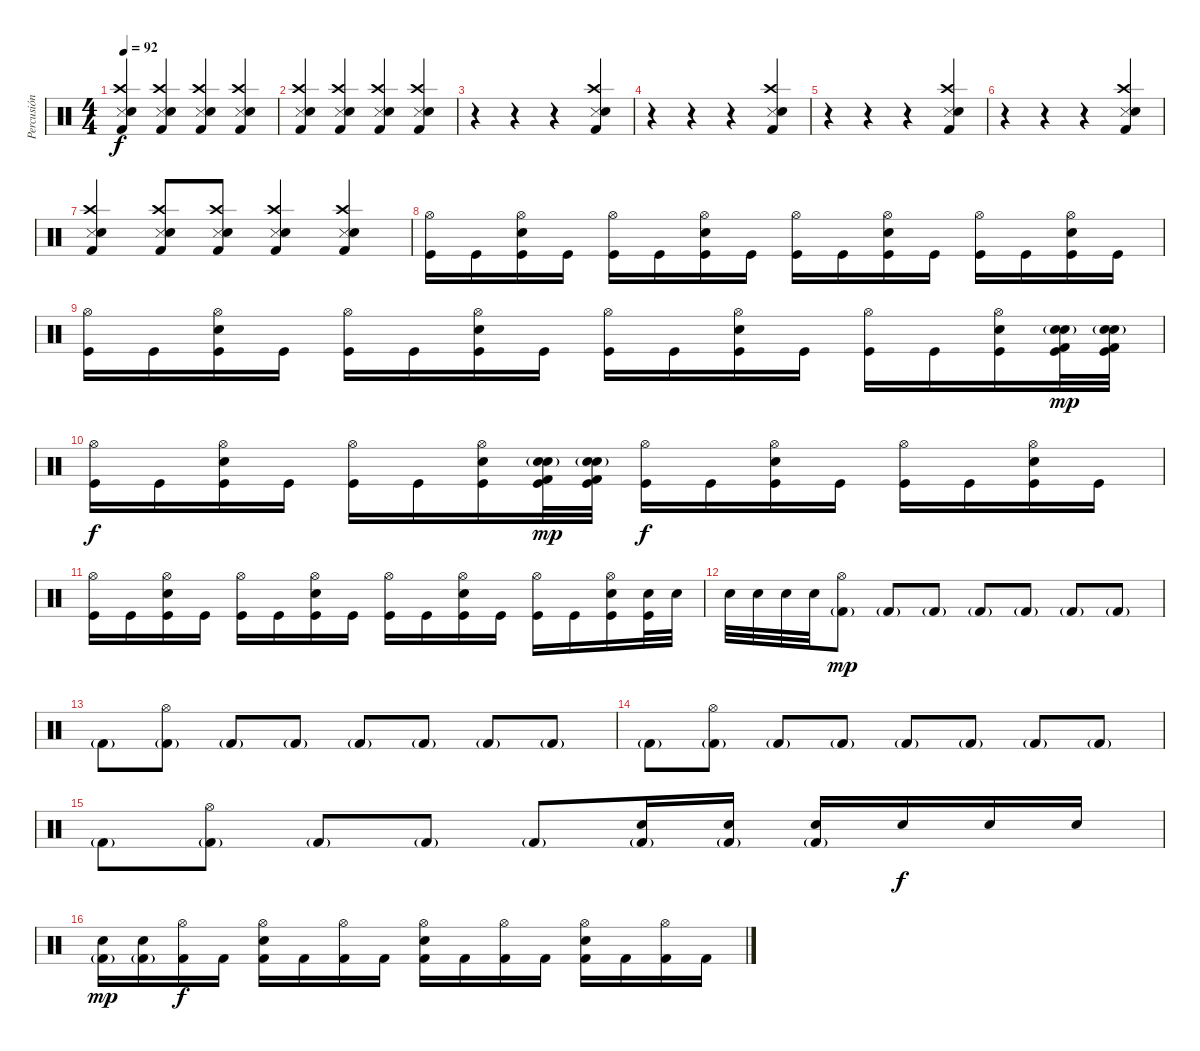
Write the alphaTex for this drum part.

\track ("Percusión" "Percusión") {instrument percussion}
\staff {score}
\articulation defaults
\ts (4 4)
\tempo 92
\clef neutral
\ks c
("Snare (side stick) 3" "Snare (hit) 2" "Crash high (hit)" "Kick (hit) 2").4{dy f} ("Snare (side stick) 3" "Snare (hit) 2" "Crash high (hit)" "Kick (hit) 2").4 ("Snare (side stick) 3" "Snare (hit) 2" "Crash high (hit)" "Kick (hit) 2").4 ("Snare (side stick) 3" "Snare (hit) 2" "Crash high (hit)" "Kick (hit) 2").4 |
("Snare (side stick) 3" "Snare (hit) 2" "Crash high (hit)" "Kick (hit) 2").4 ("Snare (side stick) 3" "Snare (hit) 2" "Crash high (hit)" "Kick (hit) 2").4 ("Snare (side stick) 3" "Snare (hit) 2" "Crash high (hit)" "Kick (hit) 2").4 ("Snare (side stick) 3" "Snare (hit) 2" "Crash high (hit)" "Kick (hit) 2").4 |
r.4 r.4 r.4 ("Snare (side stick) 3" "Snare (hit) 2" "Crash high (hit)" "Kick (hit) 2").4 |
r.4 r.4 r.4 ("Snare (side stick) 3" "Snare (hit) 2" "Crash high (hit)" "Kick (hit) 2").4 |
r.4 r.4 r.4 ("Snare (side stick) 3" "Snare (hit) 2" "Crash high (hit)" "Kick (hit) 2").4 |
r.4 r.4 r.4 ("Snare (side stick) 3" "Snare (hit) 2" "Crash high (hit)" "Kick (hit) 2").4 |
("Snare (side stick) 3" "Snare (hit) 2" "Crash high (hit)" "Kick (hit) 2").4 ("Snare (side stick) 3" "Snare (hit) 2" "Crash high (hit)" "Kick (hit) 2").8 ("Snare (side stick) 3" "Snare (hit) 2" "Crash high (hit)" "Kick (hit) 2").8 ("Snare (side stick) 3" "Snare (hit) 2" "Crash high (hit)" "Kick (hit) 2").4 ("Snare (side stick) 3" "Snare (hit) 2" "Crash high (hit)" "Kick (hit) 2").4 |
("Hi-Hat (open)" "Kick (hit)").16 "Kick (hit)".16 ("Snare (hit) 2" "Hi-Hat (open)" "Kick (hit)").16 "Kick (hit)".16 ("Hi-Hat (open)" "Kick (hit)").16 "Kick (hit)".16 ("Snare (hit) 2" "Hi-Hat (open)" "Kick (hit)").16 "Kick (hit)".16 ("Hi-Hat (open)" "Kick (hit)").16 "Kick (hit)".16 ("Snare (hit) 2" "Hi-Hat (open)" "Kick (hit)").16 "Kick (hit)".16 ("Hi-Hat (open)" "Kick (hit)").16 "Kick (hit)".16 ("Snare (hit) 2" "Hi-Hat (open)" "Kick (hit)").16 "Kick (hit)".16 |
("Hi-Hat (open)" "Kick (hit)").16 "Kick (hit)".16 ("Snare (hit) 2" "Hi-Hat (open)" "Kick (hit)").16 "Kick (hit)".16 ("Hi-Hat (open)" "Kick (hit)").16 "Kick (hit)".16 ("Snare (hit) 2" "Hi-Hat (open)" "Kick (hit)").16 "Kick (hit)".16 ("Hi-Hat (open)" "Kick (hit)").16 "Kick (hit)".16 ("Snare (hit) 2" "Hi-Hat (open)" "Kick (hit)").16 "Kick (hit)".16 ("Hi-Hat (open)" "Kick (hit)").16 "Kick (hit)".16 ("Snare (hit) 2" "Hi-Hat (open)" "Kick (hit)").16 ("Snare (hit) 2"{g} "Electric Snare (hit)" "Kick (hit) 2" "Kick (hit)").32{dy mp} ("Snare (hit) 2"{g} "Electric Snare (hit)" "Kick (hit) 2" "Kick (hit)").32 |
("Hi-Hat (open)" "Kick (hit)").16{dy f} "Kick (hit)".16 ("Snare (hit) 2" "Hi-Hat (open)" "Kick (hit)").16 "Kick (hit)".16 ("Hi-Hat (open)" "Kick (hit)").16 "Kick (hit)".16 ("Snare (hit) 2" "Hi-Hat (open)" "Kick (hit)").16 ("Snare (hit) 2"{g} "Electric Snare (hit)" "Kick (hit) 2" "Kick (hit)").32{dy mp} ("Snare (hit) 2"{g} "Electric Snare (hit)" "Kick (hit) 2" "Kick (hit)").32 ("Hi-Hat (open)" "Kick (hit)").16{dy f} "Kick (hit)".16 ("Snare (hit) 2" "Hi-Hat (open)" "Kick (hit)").16 "Kick (hit)".16 ("Hi-Hat (open)" "Kick (hit)").16 "Kick (hit)".16 ("Snare (hit) 2" "Hi-Hat (open)" "Kick (hit)").16 "Kick (hit)".16 |
("Hi-Hat (open)" "Kick (hit)").16 "Kick (hit)".16 ("Snare (hit) 2" "Hi-Hat (open)" "Kick (hit)").16 "Kick (hit)".16 ("Hi-Hat (open)" "Kick (hit)").16 "Kick (hit)".16 ("Snare (hit) 2" "Hi-Hat (open)" "Kick (hit)").16 "Kick (hit)".16 ("Hi-Hat (open)" "Kick (hit)").16 "Kick (hit)".16 ("Snare (hit) 2" "Hi-Hat (open)" "Kick (hit)").16 "Kick (hit)".16 ("Hi-Hat (open)" "Kick (hit)").16 "Kick (hit)".16 ("Snare (hit) 2" "Hi-Hat (open)" "Kick (hit)").16 ("Snare (hit) 2" "Kick (hit)").32 "Snare (hit) 2".32 |
"Snare (hit) 2".32 "Snare (hit) 2".32 "Snare (hit) 2".32 "Snare (hit) 2".32 ("Hi-Hat (open)" "Kick (hit) 2"{g}).8{dy mp} "Kick (hit) 2"{g}.8 "Kick (hit) 2"{g}.8 "Kick (hit) 2"{g}.8 "Kick (hit) 2"{g}.8 "Kick (hit) 2"{g}.8 "Kick (hit) 2"{g}.8 |
"Kick (hit) 2"{g}.8 ("Hi-Hat (open)" "Kick (hit) 2"{g}).8 "Kick (hit) 2"{g}.8 "Kick (hit) 2"{g}.8 "Kick (hit) 2"{g}.8 "Kick (hit) 2"{g}.8 "Kick (hit) 2"{g}.8 "Kick (hit) 2"{g}.8 |
"Kick (hit) 2"{g}.8 ("Hi-Hat (open)" "Kick (hit) 2"{g}).8 "Kick (hit) 2"{g}.8 "Kick (hit) 2"{g}.8 "Kick (hit) 2"{g}.8 "Kick (hit) 2"{g}.8 "Kick (hit) 2"{g}.8 "Kick (hit) 2"{g}.8 |
"Kick (hit) 2"{g}.8 ("Hi-Hat (open)" "Kick (hit) 2"{g}).8 "Kick (hit) 2"{g}.8 "Kick (hit) 2"{g}.8 "Kick (hit) 2"{g}.8 ("Snare (hit) 2" "Kick (hit) 2"{g}).16 ("Snare (hit) 2" "Kick (hit) 2"{g}).16 ("Snare (hit) 2" "Kick (hit) 2"{g}).16 "Snare (hit) 2".16{dy f} "Snare (hit) 2".16 "Snare (hit) 2".16 |
("Snare (hit) 2" "Kick (hit) 2"{g}).16{dy mp} ("Snare (hit) 2" "Kick (hit) 2"{g}).16 ("Hi-Hat (open)" "Kick (hit) 2").16{dy f} "Kick (hit) 2".16 ("Snare (hit) 2" "Hi-Hat (open)" "Kick (hit) 2").16 "Kick (hit) 2".16 ("Hi-Hat (open)" "Kick (hit) 2").16 "Kick (hit) 2".16 ("Snare (hit) 2" "Hi-Hat (open)" "Kick (hit) 2").16 "Kick (hit) 2".16 ("Hi-Hat (open)" "Kick (hit) 2").16 "Kick (hit) 2".16 ("Snare (hit) 2" "Hi-Hat (open)" "Kick (hit) 2").16 "Kick (hit) 2".16 ("Hi-Hat (open)" "Kick (hit) 2").16 "Kick (hit) 2".16
